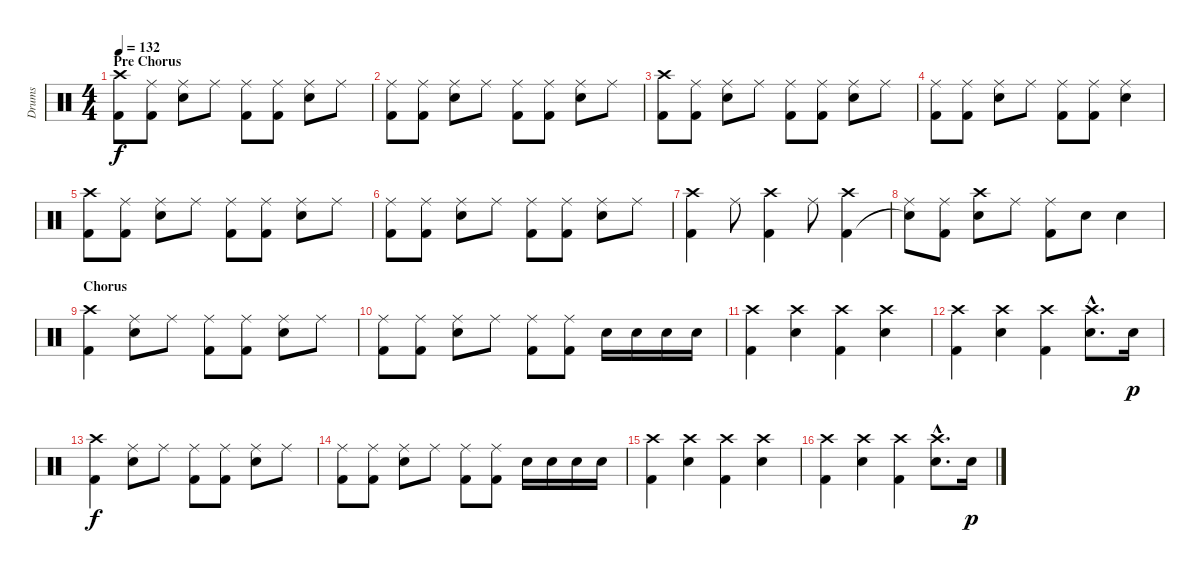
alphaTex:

\track ("Drums" "Drums") {instrument percussion}
\staff {score}
\articulation defaults
\ts (4 4)
\section ("" "Pre Chorus")
\tempo 132
\clef neutral
\ks c
("Crash high (hit)" "Kick (hit) 2").8{dy f} ("Ride (middle)" "Kick (hit) 2").8 ("Ride (middle)" "Electric Snare (hit)").8 "Ride (middle)".8 ("Ride (middle)" "Kick (hit) 2").8 ("Ride (middle)" "Kick (hit) 2").8 ("Ride (middle)" "Electric Snare (hit)").8 "Ride (middle)".8 |
("Ride (middle)" "Kick (hit) 2").8 ("Ride (middle)" "Kick (hit) 2").8 ("Ride (middle)" "Electric Snare (hit)").8 "Ride (middle)".8 ("Ride (middle)" "Kick (hit) 2").8 ("Ride (middle)" "Kick (hit) 2").8 ("Ride (middle)" "Electric Snare (hit)").8 "Ride (middle)".8 |
("Crash high (hit)" "Kick (hit) 2").8 ("Ride (middle)" "Kick (hit) 2").8 ("Ride (middle)" "Electric Snare (hit)").8 "Ride (middle)".8 ("Ride (middle)" "Kick (hit) 2").8 ("Ride (middle)" "Kick (hit) 2").8 ("Ride (middle)" "Electric Snare (hit)").8 "Ride (middle)".8 |
("Ride (middle)" "Kick (hit) 2").8 ("Ride (middle)" "Kick (hit) 2").8 ("Ride (middle)" "Electric Snare (hit)").8 "Ride (middle)".8 ("Ride (middle)" "Kick (hit) 2").8 ("Ride (middle)" "Kick (hit) 2").8 ("Ride (middle)" "Electric Snare (hit)").4 |
("Crash high (hit)" "Kick (hit) 2").8 ("Ride (middle)" "Kick (hit) 2").8 ("Ride (middle)" "Electric Snare (hit)").8 "Ride (middle)".8 ("Ride (middle)" "Kick (hit) 2").8 ("Ride (middle)" "Kick (hit) 2").8 ("Ride (middle)" "Electric Snare (hit)").8 "Ride (middle)".8 |
("Ride (middle)" "Kick (hit) 2").8 ("Ride (middle)" "Kick (hit) 2").8 ("Ride (middle)" "Electric Snare (hit)").8 "Ride (middle)".8 ("Ride (middle)" "Kick (hit) 2").8 ("Ride (middle)" "Kick (hit) 2").8 ("Ride (middle)" "Electric Snare (hit)").8 "Ride (middle)".8 |
("Crash high (hit)" "Kick (hit) 2").4 "Ride (middle)".8 ("Crash high (hit)" "Kick (hit) 2").4 "Ride (middle)".8 ("Crash high (hit)" "Kick (hit) 2").4 |
("Ride (middle)" "Snare (hit)"{t}).8 ("Ride (middle)" "Kick (hit) 2").8 ("Crash high (hit)" "Electric Snare (hit)").8 "Ride (middle)".8 ("Ride (middle)" "Kick (hit) 2").8 "Electric Snare (hit)".8 "Electric Snare (hit)".4 |
\section ("" "Chorus")
("Crash high (hit)" "Kick (hit) 2").4 ("Ride (middle)" "Electric Snare (hit)").8 "Ride (middle)".8 ("Ride (middle)" "Kick (hit) 2").8 ("Ride (middle)" "Kick (hit) 2").8 ("Ride (middle)" "Electric Snare (hit)").8 "Ride (middle)".8 |
("Ride (middle)" "Kick (hit) 2").8 ("Ride (middle)" "Kick (hit) 2").8 ("Ride (middle)" "Electric Snare (hit)").8 "Ride (middle)".8 ("Ride (middle)" "Kick (hit) 2").8 ("Ride (middle)" "Kick (hit) 2").8 "Electric Snare (hit)".16 "Electric Snare (hit)".16 "Electric Snare (hit)".16 "Electric Snare (hit)".16 |
("Crash high (hit)" "Kick (hit) 2").4 ("Crash high (hit)" "Electric Snare (hit)").4 ("Crash high (hit)" "Kick (hit) 2").4 ("Crash high (hit)" "Electric Snare (hit)").4 |
("Crash high (hit)" "Kick (hit) 2").4 ("Crash high (hit)" "Electric Snare (hit)").4 ("Crash high (hit)" "Kick (hit) 2").4 ("Crash high (hit)"{hac} "Electric Snare (hit)"{hac}).8{d} "Electric Snare (hit)".16{dy p} |
("Crash high (hit)" "Kick (hit) 2").4{dy f} ("Ride (middle)" "Electric Snare (hit)").8 "Ride (middle)".8 ("Ride (middle)" "Kick (hit) 2").8 ("Ride (middle)" "Kick (hit) 2").8 ("Ride (middle)" "Electric Snare (hit)").8 "Ride (middle)".8 |
("Ride (middle)" "Kick (hit) 2").8 ("Ride (middle)" "Kick (hit) 2").8 ("Ride (middle)" "Electric Snare (hit)").8 "Ride (middle)".8 ("Ride (middle)" "Kick (hit) 2").8 ("Ride (middle)" "Kick (hit) 2").8 "Electric Snare (hit)".16 "Electric Snare (hit)".16 "Electric Snare (hit)".16 "Electric Snare (hit)".16 |
("Crash high (hit)" "Kick (hit) 2").4 ("Crash high (hit)" "Electric Snare (hit)").4 ("Crash high (hit)" "Kick (hit) 2").4 ("Crash high (hit)" "Electric Snare (hit)").4 |
("Crash high (hit)" "Kick (hit) 2").4 ("Crash high (hit)" "Electric Snare (hit)").4 ("Crash high (hit)" "Kick (hit) 2").4 ("Crash high (hit)"{hac} "Electric Snare (hit)"{hac}).8{d} "Electric Snare (hit)".16{dy p}
